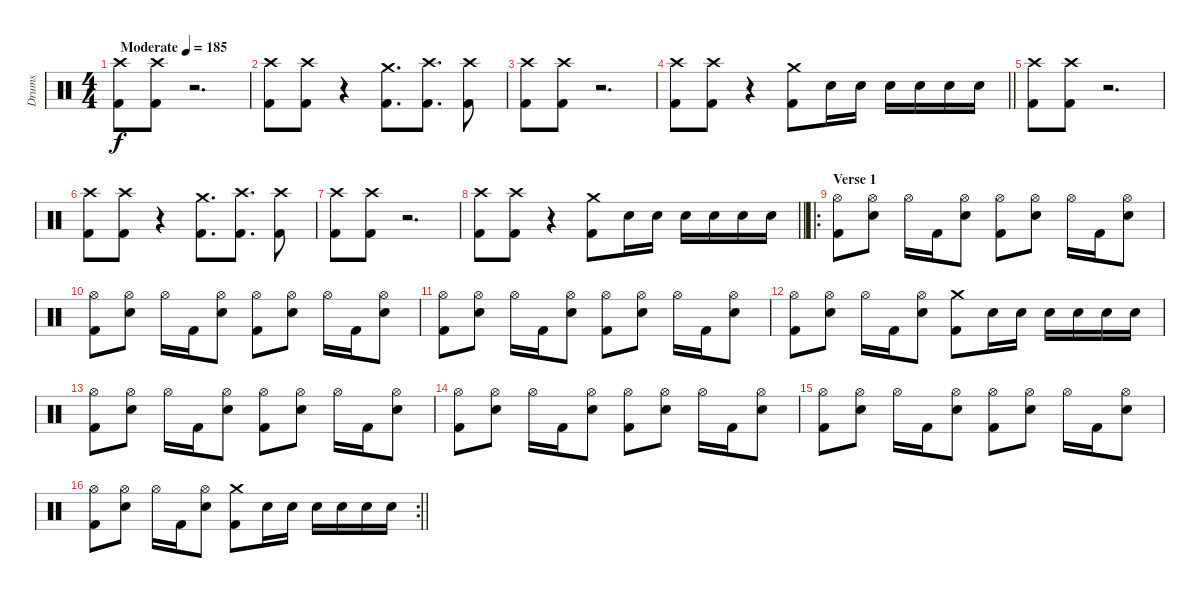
\track ("Drums" "Drums") {instrument percussion}
\staff {score}
\articulation defaults
\ts (4 4)
\tempo (185 "Moderate")
\clef neutral
\ks c
("Crash high (hit)" "Kick (hit) 2").8{dy f} ("Crash high (hit)" "Kick (hit) 2").8 r.2{d} |
("Crash high (hit)" "Kick (hit) 2").8 ("Crash high (hit)" "Kick (hit) 2").8 r.4 ("Crash medium (hit)" "Kick (hit) 2").8{d} ("Crash high (hit)" "Kick (hit) 2").8{d} ("Crash high (hit)" "Kick (hit) 2").8 |
("Crash high (hit)" "Kick (hit) 2").8 ("Crash high (hit)" "Kick (hit) 2").8 r.2{d} |
\barLineRight lightlight
("Crash high (hit)" "Kick (hit) 2").8 ("Crash high (hit)" "Kick (hit) 2").8 r.4 ("Crash medium (hit)" "Kick (hit) 2").8 "Electric Snare (hit)".16 "Electric Snare (hit)".16 "Electric Snare (hit)".16 "Electric Snare (hit)".16 "Electric Snare (hit)".16 "Electric Snare (hit)".16 |
("Crash high (hit)" "Kick (hit) 2").8 ("Crash high (hit)" "Kick (hit) 2").8 r.2{d} |
("Crash high (hit)" "Kick (hit) 2").8 ("Crash high (hit)" "Kick (hit) 2").8 r.4 ("Crash medium (hit)" "Kick (hit) 2").8{d} ("Crash high (hit)" "Kick (hit) 2").8{d} ("Crash high (hit)" "Kick (hit) 2").8 |
("Crash high (hit)" "Kick (hit) 2").8 ("Crash high (hit)" "Kick (hit) 2").8 r.2{d} |
\barLineRight lightlight
("Crash high (hit)" "Kick (hit) 2").8 ("Crash high (hit)" "Kick (hit) 2").8 r.4 ("Crash medium (hit)" "Kick (hit) 2").8 "Electric Snare (hit)".16 "Electric Snare (hit)".16 "Electric Snare (hit)".16 "Electric Snare (hit)".16 "Electric Snare (hit)".16 "Electric Snare (hit)".16 |
\ro
\section ("" "Verse 1")
("Hi-Hat (open)" "Kick (hit) 2").8 ("Hi-Hat (open)" "Electric Snare (hit)").8 "Hi-Hat (open)".16 "Kick (hit) 2".16 ("Hi-Hat (open)" "Electric Snare (hit)").8 ("Hi-Hat (open)" "Kick (hit) 2").8 ("Hi-Hat (open)" "Electric Snare (hit)").8 "Hi-Hat (open)".16 "Kick (hit) 2".16 ("Hi-Hat (open)" "Electric Snare (hit)").8 |
("Hi-Hat (open)" "Kick (hit) 2").8 ("Hi-Hat (open)" "Electric Snare (hit)").8 "Hi-Hat (open)".16 "Kick (hit) 2".16 ("Hi-Hat (open)" "Electric Snare (hit)").8 ("Hi-Hat (open)" "Kick (hit) 2").8 ("Hi-Hat (open)" "Electric Snare (hit)").8 "Hi-Hat (open)".16 "Kick (hit) 2".16 ("Hi-Hat (open)" "Electric Snare (hit)").8 |
("Hi-Hat (open)" "Kick (hit) 2").8 ("Hi-Hat (open)" "Electric Snare (hit)").8 "Hi-Hat (open)".16 "Kick (hit) 2".16 ("Hi-Hat (open)" "Electric Snare (hit)").8 ("Hi-Hat (open)" "Kick (hit) 2").8 ("Hi-Hat (open)" "Electric Snare (hit)").8 "Hi-Hat (open)".16 "Kick (hit) 2".16 ("Hi-Hat (open)" "Electric Snare (hit)").8 |
("Hi-Hat (open)" "Kick (hit) 2").8 ("Hi-Hat (open)" "Electric Snare (hit)").8 "Hi-Hat (open)".16 "Kick (hit) 2".16 ("Hi-Hat (open)" "Electric Snare (hit)").8 ("Crash medium (hit)" "Kick (hit) 2").8 "Electric Snare (hit)".16 "Electric Snare (hit)".16 "Electric Snare (hit)".16 "Electric Snare (hit)".16 "Electric Snare (hit)".16 "Electric Snare (hit)".16 |
("Hi-Hat (open)" "Kick (hit) 2").8 ("Hi-Hat (open)" "Electric Snare (hit)").8 "Hi-Hat (open)".16 "Kick (hit) 2".16 ("Hi-Hat (open)" "Electric Snare (hit)").8 ("Hi-Hat (open)" "Kick (hit) 2").8 ("Hi-Hat (open)" "Electric Snare (hit)").8 "Hi-Hat (open)".16 "Kick (hit) 2".16 ("Hi-Hat (open)" "Electric Snare (hit)").8 |
("Hi-Hat (open)" "Kick (hit) 2").8 ("Hi-Hat (open)" "Electric Snare (hit)").8 "Hi-Hat (open)".16 "Kick (hit) 2".16 ("Hi-Hat (open)" "Electric Snare (hit)").8 ("Hi-Hat (open)" "Kick (hit) 2").8 ("Hi-Hat (open)" "Electric Snare (hit)").8 "Hi-Hat (open)".16 "Kick (hit) 2".16 ("Hi-Hat (open)" "Electric Snare (hit)").8 |
("Hi-Hat (open)" "Kick (hit) 2").8 ("Hi-Hat (open)" "Electric Snare (hit)").8 "Hi-Hat (open)".16 "Kick (hit) 2".16 ("Hi-Hat (open)" "Electric Snare (hit)").8 ("Hi-Hat (open)" "Kick (hit) 2").8 ("Hi-Hat (open)" "Electric Snare (hit)").8 "Hi-Hat (open)".16 "Kick (hit) 2".16 ("Hi-Hat (open)" "Electric Snare (hit)").8 |
\rc 2
\barLineRight lightlight
("Hi-Hat (open)" "Kick (hit) 2").8 ("Hi-Hat (open)" "Electric Snare (hit)").8 "Hi-Hat (open)".16 "Kick (hit) 2".16 ("Hi-Hat (open)" "Electric Snare (hit)").8 ("Crash medium (hit)" "Kick (hit) 2").8 "Electric Snare (hit)".16 "Electric Snare (hit)".16 "Electric Snare (hit)".16 "Electric Snare (hit)".16 "Electric Snare (hit)".16 "Electric Snare (hit)".16
